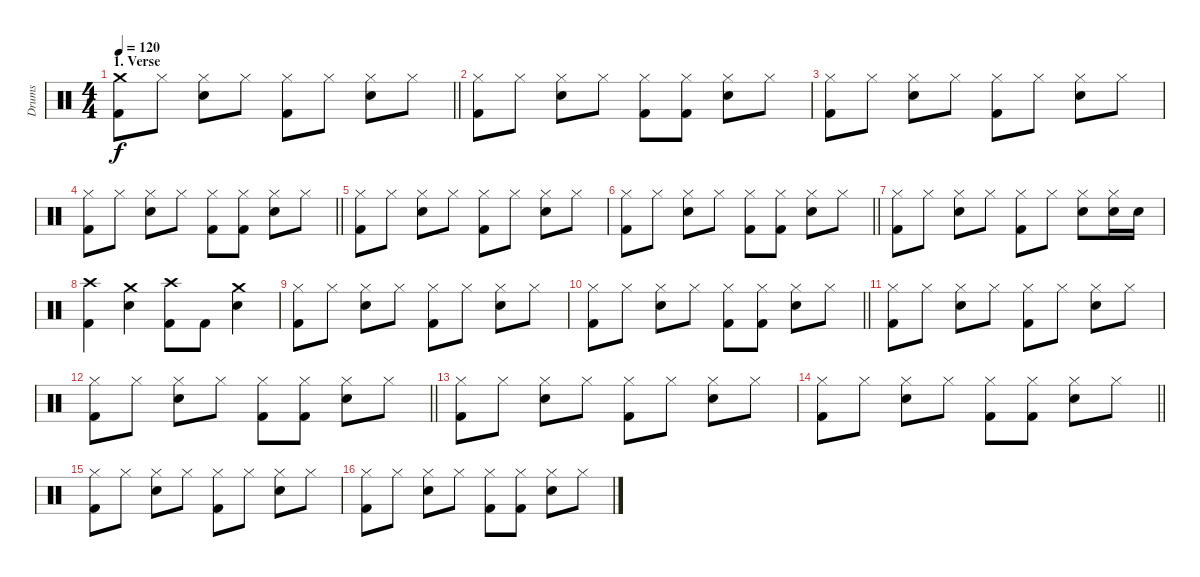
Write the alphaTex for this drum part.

\track ("Drums" "Drums") {instrument percussion}
\staff {score}
\articulation defaults
\ts (4 4)
\section ("" "1. Verse")
\tempo 120
\clef neutral
\barLineRight lightlight
\ks c
("Crash medium (hit)" "Kick (hit) 2").8{dy f} "Hi-Hat (closed)".8 ("Hi-Hat (closed)" "Snare (hit) 2").8 "Hi-Hat (closed)".8 ("Hi-Hat (closed)" "Kick (hit) 2").8 "Hi-Hat (closed)".8 ("Hi-Hat (closed)" "Snare (hit) 2").8 "Hi-Hat (closed)".8 |
\section ("" "")
("Hi-Hat (closed)" "Kick (hit) 2").8 "Hi-Hat (closed)".8 ("Hi-Hat (closed)" "Snare (hit) 2").8 "Hi-Hat (closed)".8 ("Hi-Hat (closed)" "Kick (hit) 2").8 ("Hi-Hat (closed)" "Kick (hit) 2").8 ("Hi-Hat (closed)" "Snare (hit) 2").8 "Hi-Hat (closed)".8 |
("Hi-Hat (closed)" "Kick (hit) 2").8 "Hi-Hat (closed)".8 ("Hi-Hat (closed)" "Snare (hit) 2").8 "Hi-Hat (closed)".8 ("Hi-Hat (closed)" "Kick (hit) 2").8 "Hi-Hat (closed)".8 ("Hi-Hat (closed)" "Snare (hit) 2").8 "Hi-Hat (closed)".8 |
\barLineRight lightlight
("Hi-Hat (closed)" "Kick (hit) 2").8 "Hi-Hat (closed)".8 ("Hi-Hat (closed)" "Snare (hit) 2").8 "Hi-Hat (closed)".8 ("Hi-Hat (closed)" "Kick (hit) 2").8 ("Hi-Hat (closed)" "Kick (hit) 2").8 ("Hi-Hat (closed)" "Snare (hit) 2").8 "Hi-Hat (closed)".8 |
("Hi-Hat (closed)" "Kick (hit) 2").8 "Hi-Hat (closed)".8 ("Hi-Hat (closed)" "Snare (hit) 2").8 "Hi-Hat (closed)".8 ("Hi-Hat (closed)" "Kick (hit) 2").8 "Hi-Hat (closed)".8 ("Hi-Hat (closed)" "Snare (hit) 2").8 "Hi-Hat (closed)".8 |
\barLineRight lightlight
("Hi-Hat (closed)" "Kick (hit) 2").8 "Hi-Hat (closed)".8 ("Hi-Hat (closed)" "Snare (hit) 2").8 "Hi-Hat (closed)".8 ("Hi-Hat (closed)" "Kick (hit) 2").8 ("Hi-Hat (closed)" "Kick (hit) 2").8 ("Hi-Hat (closed)" "Snare (hit) 2").8 "Hi-Hat (closed)".8 |
("Hi-Hat (closed)" "Kick (hit) 2").8 "Hi-Hat (closed)".8 ("Hi-Hat (closed)" "Snare (hit) 2").8 "Hi-Hat (closed)".8 ("Hi-Hat (closed)" "Kick (hit) 2").8 "Hi-Hat (closed)".8 ("Hi-Hat (closed)" "Snare (hit) 2").8 ("Hi-Hat (closed)" "Snare (hit) 2").16 "Snare (hit) 2".16 |
("Crash high (hit)" "Kick (hit) 2").4 ("Crash medium (hit)" "Snare (hit) 2").4 ("Crash high (hit)" "Kick (hit) 2").8 "Kick (hit) 2".8 ("Crash medium (hit)" "Snare (hit) 2").4 |
("Hi-Hat (closed)" "Kick (hit) 2").8 "Hi-Hat (closed)".8 ("Hi-Hat (closed)" "Snare (hit) 2").8 "Hi-Hat (closed)".8 ("Hi-Hat (closed)" "Kick (hit) 2").8 "Hi-Hat (closed)".8 ("Hi-Hat (closed)" "Snare (hit) 2").8 "Hi-Hat (closed)".8 |
\barLineRight lightlight
("Hi-Hat (closed)" "Kick (hit) 2").8 "Hi-Hat (closed)".8 ("Hi-Hat (closed)" "Snare (hit) 2").8 "Hi-Hat (closed)".8 ("Hi-Hat (closed)" "Kick (hit) 2").8 ("Hi-Hat (closed)" "Kick (hit) 2").8 ("Hi-Hat (closed)" "Snare (hit) 2").8 "Hi-Hat (closed)".8 |
("Hi-Hat (closed)" "Kick (hit) 2").8 "Hi-Hat (closed)".8 ("Hi-Hat (closed)" "Snare (hit) 2").8 "Hi-Hat (closed)".8 ("Hi-Hat (closed)" "Kick (hit) 2").8 "Hi-Hat (closed)".8 ("Hi-Hat (closed)" "Snare (hit) 2").8 "Hi-Hat (closed)".8 |
\barLineRight lightlight
("Hi-Hat (closed)" "Kick (hit) 2").8 "Hi-Hat (closed)".8 ("Hi-Hat (closed)" "Snare (hit) 2").8 "Hi-Hat (closed)".8 ("Hi-Hat (closed)" "Kick (hit) 2").8 ("Hi-Hat (closed)" "Kick (hit) 2").8 ("Hi-Hat (closed)" "Snare (hit) 2").8 "Hi-Hat (closed)".8 |
("Hi-Hat (closed)" "Kick (hit) 2").8 "Hi-Hat (closed)".8 ("Hi-Hat (closed)" "Snare (hit) 2").8 "Hi-Hat (closed)".8 ("Hi-Hat (closed)" "Kick (hit) 2").8 "Hi-Hat (closed)".8 ("Hi-Hat (closed)" "Snare (hit) 2").8 "Hi-Hat (closed)".8 |
\barLineRight lightlight
("Hi-Hat (closed)" "Kick (hit) 2").8 "Hi-Hat (closed)".8 ("Hi-Hat (closed)" "Snare (hit) 2").8 "Hi-Hat (closed)".8 ("Hi-Hat (closed)" "Kick (hit) 2").8 ("Hi-Hat (closed)" "Kick (hit) 2").8 ("Hi-Hat (closed)" "Snare (hit) 2").8 "Hi-Hat (closed)".8 |
("Hi-Hat (closed)" "Kick (hit) 2").8 "Hi-Hat (closed)".8 ("Hi-Hat (closed)" "Snare (hit) 2").8 "Hi-Hat (closed)".8 ("Hi-Hat (closed)" "Kick (hit) 2").8 "Hi-Hat (closed)".8 ("Hi-Hat (closed)" "Snare (hit) 2").8 "Hi-Hat (closed)".8 |
("Hi-Hat (closed)" "Kick (hit) 2").8 "Hi-Hat (closed)".8 ("Hi-Hat (closed)" "Snare (hit) 2").8 "Hi-Hat (closed)".8 ("Hi-Hat (closed)" "Kick (hit) 2").8 ("Hi-Hat (closed)" "Kick (hit) 2").8 ("Hi-Hat (closed)" "Snare (hit) 2").8 "Hi-Hat (closed)".8
